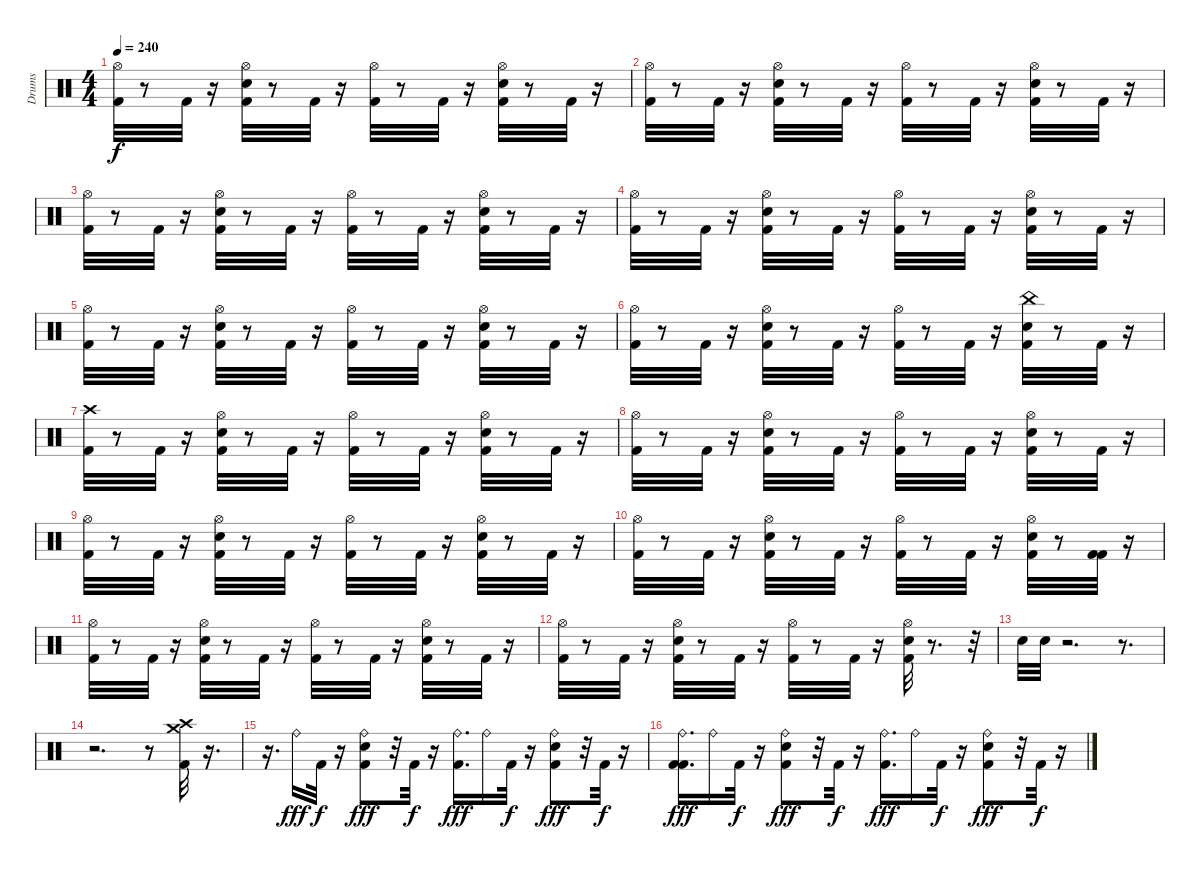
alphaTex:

\track ("Drums" "Drums") {instrument percussion}
\staff {score}
\articulation defaults
\ts (4 4)
\tempo 240
\clef neutral
\ks c
("Hi-Hat (open)" "Kick (hit) 2").32{dy f} r.8 "Kick (hit) 2".32 r.16 ("Kick (hit) 2" "Hi-Hat (open)" "Electric Snare (hit)").32 r.8 "Kick (hit) 2".32 r.16 ("Kick (hit) 2" "Hi-Hat (open)").32 r.8 "Kick (hit) 2".32 r.16 ("Kick (hit) 2" "Electric Snare (hit)" "Hi-Hat (open)").32 r.8 "Kick (hit) 2".32 r.16 |
("Hi-Hat (open)" "Kick (hit) 2").32 r.8 "Kick (hit) 2".32 r.16 ("Electric Snare (hit)" "Kick (hit) 2" "Hi-Hat (open)").32 r.8 "Kick (hit) 2".32 r.16 ("Hi-Hat (open)" "Kick (hit) 2").32 r.8 "Kick (hit) 2".32 r.16 ("Kick (hit) 2" "Electric Snare (hit)" "Hi-Hat (open)").32 r.8 "Kick (hit) 2".32 r.16 |
("Kick (hit) 2" "Hi-Hat (open)").32 r.8 "Kick (hit) 2".32 r.16 ("Kick (hit) 2" "Electric Snare (hit)" "Hi-Hat (open)").32 r.8 "Kick (hit) 2".32 r.16 ("Kick (hit) 2" "Hi-Hat (open)").32 r.8 "Kick (hit) 2".32 r.16 ("Electric Snare (hit)" "Hi-Hat (open)" "Kick (hit) 2").32 r.8 "Kick (hit) 2".32 r.16 |
("Kick (hit) 2" "Hi-Hat (open)").32 r.8 "Kick (hit) 2".32 r.16 ("Electric Snare (hit)" "Hi-Hat (open)" "Kick (hit) 2").32 r.8 "Kick (hit) 2".32 r.16 ("Hi-Hat (open)" "Kick (hit) 2").32 r.8 "Kick (hit) 2".32 r.16 ("Hi-Hat (open)" "Electric Snare (hit)" "Kick (hit) 2").32 r.8 "Kick (hit) 2".32 r.16 |
("Kick (hit) 2" "Hi-Hat (open)").32 r.8 "Kick (hit) 2".32 r.16 ("Electric Snare (hit)" "Hi-Hat (open)" "Kick (hit) 2").32 r.8 "Kick (hit) 2".32 r.16 ("Hi-Hat (open)" "Kick (hit) 2").32 r.8 "Kick (hit) 2".32 r.16 ("Kick (hit) 2" "Electric Snare (hit)" "Hi-Hat (open)").32 r.8 "Kick (hit) 2".32 r.16 |
("Kick (hit) 2" "Hi-Hat (open)").32 r.8 "Kick (hit) 2".32 r.16 ("Hi-Hat (open)" "Kick (hit) 2" "Electric Snare (hit)").32 r.8 "Kick (hit) 2".32 r.16 ("Hi-Hat (open)" "Kick (hit) 2").32 r.8 "Kick (hit) 2".32 r.16 ("China (hit)" "Kick (hit) 2" "Electric Snare (hit)").32 r.8 "Kick (hit) 2".32 r.16 |
("Kick (hit) 2" "Crash high (hit)").32 r.8 "Kick (hit) 2".32 r.16 ("Kick (hit) 2" "Hi-Hat (open)" "Electric Snare (hit)").32 r.8 "Kick (hit) 2".32 r.16 ("Hi-Hat (open)" "Kick (hit) 2").32 r.8 "Kick (hit) 2".32 r.16 ("Kick (hit) 2" "Hi-Hat (open)" "Electric Snare (hit)").32 r.8 "Kick (hit) 2".32 r.16 |
("Hi-Hat (open)" "Kick (hit) 2").32 r.8 "Kick (hit) 2".32 r.16 ("Electric Snare (hit)" "Kick (hit) 2" "Hi-Hat (open)").32 r.8 "Kick (hit) 2".32 r.16 ("Kick (hit) 2" "Hi-Hat (open)").32 r.8 "Kick (hit) 2".32 r.16 ("Hi-Hat (open)" "Electric Snare (hit)" "Kick (hit) 2").32 r.8 "Kick (hit) 2".32 r.16 |
("Hi-Hat (open)" "Kick (hit) 2").32 r.8 "Kick (hit) 2".32 r.16 ("Hi-Hat (open)" "Kick (hit) 2" "Electric Snare (hit)").32 r.8 "Kick (hit) 2".32 r.16 ("Kick (hit) 2" "Hi-Hat (open)").32 r.8 "Kick (hit) 2".32 r.16 ("Hi-Hat (open)" "Kick (hit) 2" "Electric Snare (hit)").32 r.8 "Kick (hit) 2".32 r.16 |
("Hi-Hat (open)" "Kick (hit) 2").32 r.8 "Kick (hit) 2".32 r.16 ("Hi-Hat (open)" "Electric Snare (hit)" "Kick (hit) 2").32 r.8 "Kick (hit) 2".32 r.16 ("Hi-Hat (open)" "Kick (hit) 2").32 r.8 "Kick (hit) 2".32 r.16 ("Kick (hit) 2" "Hi-Hat (open)" "Electric Snare (hit)").32 r.8 ("Kick (hit) 2" "Kick (hit) 2").32 r.16 |
("Kick (hit) 2" "Hi-Hat (open)").32 r.8 "Kick (hit) 2".32 r.16 ("Electric Snare (hit)" "Kick (hit) 2" "Hi-Hat (open)").32 r.8 "Kick (hit) 2".32 r.16 ("Kick (hit) 2" "Hi-Hat (open)").32 r.8 "Kick (hit) 2".32 r.16 ("Hi-Hat (open)" "Electric Snare (hit)" "Kick (hit) 2").32 r.8 "Kick (hit) 2".32 r.16 |
("Hi-Hat (open)" "Kick (hit) 2").32 r.8 "Kick (hit) 2".32 r.16 ("Electric Snare (hit)" "Kick (hit) 2" "Hi-Hat (open)").32 r.8 "Kick (hit) 2".32 r.16 ("Kick (hit) 2" "Hi-Hat (open)").32 r.8 "Kick (hit) 2".32 r.16 ("Kick (hit) 2" "Electric Snare (hit)" "Hi-Hat (open)").32 r.8{d} r.32 |
"Electric Snare (hit)".32 "Electric Snare (hit)".32 r.2{d} r.8{d} |
r.2{d} r.8 ("Kick (hit) 2" "Crash high (hit)" "Crash medium (hit)").32 r.16{d} |
r.16{d} "Ride (bell)".16{dy fff} "Kick (hit) 2".32{dy f} r.16 ("Kick (hit) 2" "Ride (bell)" "Electric Snare (hit)").8{dy fff} r.32 "Kick (hit) 2".32{dy f} r.16 ("Ride (bell)" "Kick (hit) 2").16{d dy fff} "Ride (bell)".16 "Kick (hit) 2".32{dy f} r.16 ("Electric Snare (hit)" "Kick (hit) 2" "Ride (bell)").8{dy fff} r.32 "Kick (hit) 2".32{dy f} r.16 |
("Kick (hit) 2" "Ride (bell)" "Kick (hit) 2").16{d dy fff} "Ride (bell)".16 "Kick (hit) 2".32{dy f} r.16 ("Ride (bell)" "Kick (hit) 2" "Electric Snare (hit)").8{dy fff} r.32 "Kick (hit) 2".32{dy f} r.16 ("Ride (bell)" "Kick (hit) 2").16{d dy fff} "Ride (bell)".16 "Kick (hit) 2".32{dy f} r.16 ("Ride (bell)" "Kick (hit) 2" "Electric Snare (hit)").8{dy fff} r.32 "Kick (hit) 2".32{dy f} r.16
